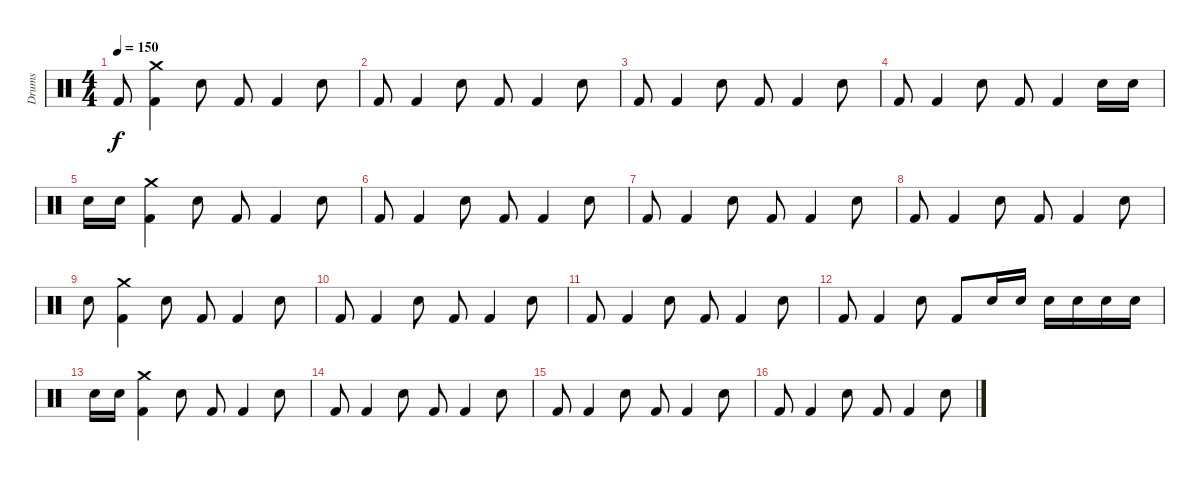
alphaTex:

\track ("Drums" "Drums") {instrument percussion}
\staff {score}
\articulation defaults
\ts (4 4)
\tempo 150
\clef neutral
\ks c "Kick (hit) 2".8{dy f}
("Crash medium (hit)" "Kick (hit) 2").4 "Snare (hit) 2".8 "Kick (hit) 2".8 "Kick (hit) 2".4 "Snare (hit) 2".8 |
"Kick (hit) 2".8 "Kick (hit) 2".4 "Snare (hit) 2".8 "Kick (hit) 2".8 "Kick (hit) 2".4 "Snare (hit) 2".8 |
"Kick (hit) 2".8 "Kick (hit) 2".4 "Snare (hit) 2".8 "Kick (hit) 2".8 "Kick (hit) 2".4 "Snare (hit) 2".8 |
"Kick (hit) 2".8 "Kick (hit) 2".4 "Snare (hit) 2".8 "Kick (hit) 2".8 "Kick (hit) 2".4 "Snare (hit) 2".16 "Snare (hit) 2".16 |
"Snare (hit) 2".16 "Snare (hit) 2".16 ("Crash medium (hit)" "Kick (hit) 2").4 "Snare (hit) 2".8 "Kick (hit) 2".8 "Kick (hit) 2".4 "Snare (hit) 2".8 |
"Kick (hit) 2".8 "Kick (hit) 2".4 "Snare (hit) 2".8 "Kick (hit) 2".8 "Kick (hit) 2".4 "Snare (hit) 2".8 |
"Kick (hit) 2".8 "Kick (hit) 2".4 "Snare (hit) 2".8 "Kick (hit) 2".8 "Kick (hit) 2".4 "Snare (hit) 2".8 |
"Kick (hit) 2".8 "Kick (hit) 2".4 "Snare (hit) 2".8 "Kick (hit) 2".8 "Kick (hit) 2".4 "Snare (hit) 2".8 |
"Snare (hit) 2".8 ("Crash medium (hit)" "Kick (hit) 2").4 "Snare (hit) 2".8 "Kick (hit) 2".8 "Kick (hit) 2".4 "Snare (hit) 2".8 |
"Kick (hit) 2".8 "Kick (hit) 2".4 "Snare (hit) 2".8 "Kick (hit) 2".8 "Kick (hit) 2".4 "Snare (hit) 2".8 |
"Kick (hit) 2".8 "Kick (hit) 2".4 "Snare (hit) 2".8 "Kick (hit) 2".8 "Kick (hit) 2".4 "Snare (hit) 2".8 |
"Kick (hit) 2".8 "Kick (hit) 2".4 "Snare (hit) 2".8 "Kick (hit) 2".8 "Snare (hit) 2".16 "Snare (hit) 2".16 "Snare (hit) 2".16 "Snare (hit) 2".16 "Snare (hit) 2".16 "Snare (hit) 2".16 |
"Snare (hit) 2".16 "Snare (hit) 2".16 ("Crash medium (hit)" "Kick (hit) 2").4 "Snare (hit) 2".8 "Kick (hit) 2".8 "Kick (hit) 2".4 "Snare (hit) 2".8 |
"Kick (hit) 2".8 "Kick (hit) 2".4 "Snare (hit) 2".8 "Kick (hit) 2".8 "Kick (hit) 2".4 "Snare (hit) 2".8 |
"Kick (hit) 2".8 "Kick (hit) 2".4 "Snare (hit) 2".8 "Kick (hit) 2".8 "Kick (hit) 2".4 "Snare (hit) 2".8 |
"Kick (hit) 2".8 "Kick (hit) 2".4 "Snare (hit) 2".8 "Kick (hit) 2".8 "Kick (hit) 2".4 "Snare (hit) 2".8
